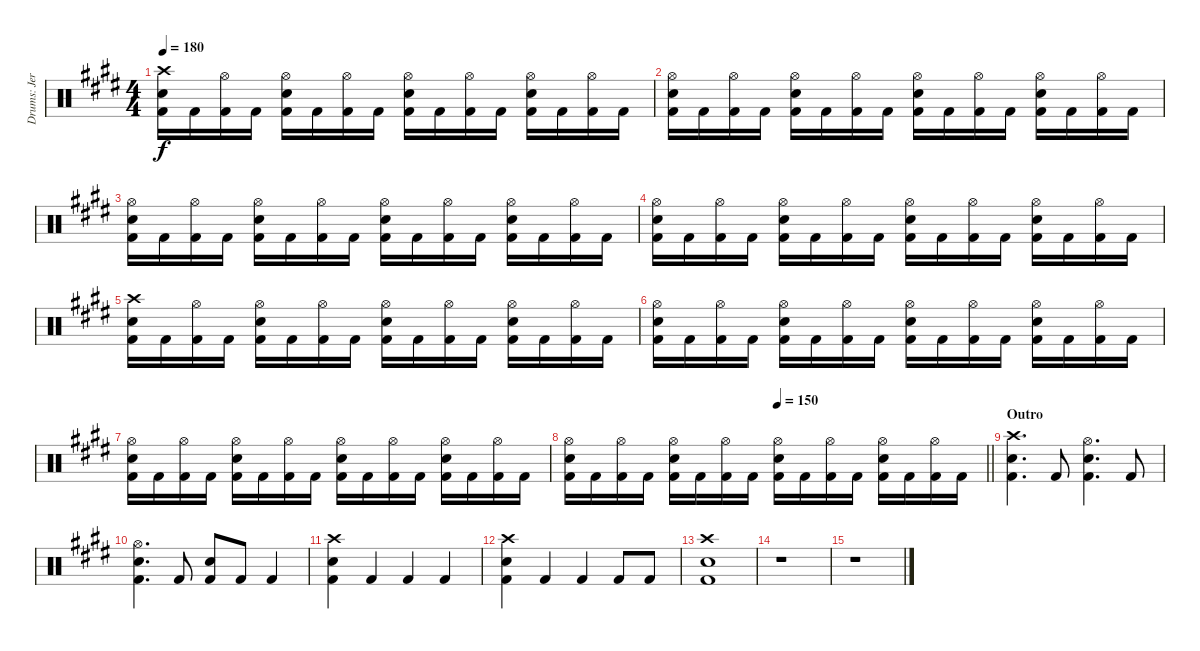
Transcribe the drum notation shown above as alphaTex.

\track ("Drums: Jere Luokkamäki" "Drums: Jer") {instrument percussion}
\staff {score}
\articulation defaults
\ts (4 4)
\tempo 180
\clef neutral
\ks c#minor
("Crash high (hit)" "Electric Snare (hit)" "Kick (hit) 2").16{dy f} "Kick (hit) 2".16 ("Hi-Hat (open)" "Kick (hit) 2").16 "Kick (hit) 2".16 ("Hi-Hat (open)" "Electric Snare (hit)" "Kick (hit) 2").16 "Kick (hit) 2".16 ("Hi-Hat (open)" "Kick (hit) 2").16 "Kick (hit) 2".16 ("Hi-Hat (open)" "Electric Snare (hit)" "Kick (hit) 2").16 "Kick (hit) 2".16 ("Hi-Hat (open)" "Kick (hit) 2").16 "Kick (hit) 2".16 ("Hi-Hat (open)" "Electric Snare (hit)" "Kick (hit) 2").16 "Kick (hit) 2".16 ("Hi-Hat (open)" "Kick (hit) 2").16 "Kick (hit) 2".16 |
("Hi-Hat (open)" "Electric Snare (hit)" "Kick (hit) 2").16 "Kick (hit) 2".16 ("Hi-Hat (open)" "Kick (hit) 2").16 "Kick (hit) 2".16 ("Hi-Hat (open)" "Electric Snare (hit)" "Kick (hit) 2").16 "Kick (hit) 2".16 ("Hi-Hat (open)" "Kick (hit) 2").16 "Kick (hit) 2".16 ("Hi-Hat (open)" "Electric Snare (hit)" "Kick (hit) 2").16 "Kick (hit) 2".16 ("Hi-Hat (open)" "Kick (hit) 2").16 "Kick (hit) 2".16 ("Hi-Hat (open)" "Electric Snare (hit)" "Kick (hit) 2").16 "Kick (hit) 2".16 ("Hi-Hat (open)" "Kick (hit) 2").16 "Kick (hit) 2".16 |
("Hi-Hat (open)" "Electric Snare (hit)" "Kick (hit) 2").16 "Kick (hit) 2".16 ("Hi-Hat (open)" "Kick (hit) 2").16 "Kick (hit) 2".16 ("Hi-Hat (open)" "Electric Snare (hit)" "Kick (hit) 2").16 "Kick (hit) 2".16 ("Hi-Hat (open)" "Kick (hit) 2").16 "Kick (hit) 2".16 ("Hi-Hat (open)" "Electric Snare (hit)" "Kick (hit) 2").16 "Kick (hit) 2".16 ("Hi-Hat (open)" "Kick (hit) 2").16 "Kick (hit) 2".16 ("Hi-Hat (open)" "Electric Snare (hit)" "Kick (hit) 2").16 "Kick (hit) 2".16 ("Hi-Hat (open)" "Kick (hit) 2").16 "Kick (hit) 2".16 |
("Hi-Hat (open)" "Electric Snare (hit)" "Kick (hit) 2").16 "Kick (hit) 2".16 ("Hi-Hat (open)" "Kick (hit) 2").16 "Kick (hit) 2".16 ("Hi-Hat (open)" "Electric Snare (hit)" "Kick (hit) 2").16 "Kick (hit) 2".16 ("Hi-Hat (open)" "Kick (hit) 2").16 "Kick (hit) 2".16 ("Hi-Hat (open)" "Electric Snare (hit)" "Kick (hit) 2").16 "Kick (hit) 2".16 ("Hi-Hat (open)" "Kick (hit) 2").16 "Kick (hit) 2".16 ("Hi-Hat (open)" "Electric Snare (hit)" "Kick (hit) 2").16 "Kick (hit) 2".16 ("Hi-Hat (open)" "Kick (hit) 2").16 "Kick (hit) 2".16 |
("Crash high (hit)" "Electric Snare (hit)" "Kick (hit) 2").16 "Kick (hit) 2".16 ("Hi-Hat (open)" "Kick (hit) 2").16 "Kick (hit) 2".16 ("Hi-Hat (open)" "Electric Snare (hit)" "Kick (hit) 2").16 "Kick (hit) 2".16 ("Hi-Hat (open)" "Kick (hit) 2").16 "Kick (hit) 2".16 ("Hi-Hat (open)" "Electric Snare (hit)" "Kick (hit) 2").16 "Kick (hit) 2".16 ("Hi-Hat (open)" "Kick (hit) 2").16 "Kick (hit) 2".16 ("Hi-Hat (open)" "Electric Snare (hit)" "Kick (hit) 2").16 "Kick (hit) 2".16 ("Hi-Hat (open)" "Kick (hit) 2").16 "Kick (hit) 2".16 |
("Hi-Hat (open)" "Electric Snare (hit)" "Kick (hit) 2").16 "Kick (hit) 2".16 ("Hi-Hat (open)" "Kick (hit) 2").16 "Kick (hit) 2".16 ("Hi-Hat (open)" "Electric Snare (hit)" "Kick (hit) 2").16 "Kick (hit) 2".16 ("Hi-Hat (open)" "Kick (hit) 2").16 "Kick (hit) 2".16 ("Hi-Hat (open)" "Electric Snare (hit)" "Kick (hit) 2").16 "Kick (hit) 2".16 ("Hi-Hat (open)" "Kick (hit) 2").16 "Kick (hit) 2".16 ("Hi-Hat (open)" "Electric Snare (hit)" "Kick (hit) 2").16 "Kick (hit) 2".16 ("Hi-Hat (open)" "Kick (hit) 2").16 "Kick (hit) 2".16 |
("Hi-Hat (open)" "Electric Snare (hit)" "Kick (hit) 2").16 "Kick (hit) 2".16 ("Hi-Hat (open)" "Kick (hit) 2").16 "Kick (hit) 2".16 ("Hi-Hat (open)" "Electric Snare (hit)" "Kick (hit) 2").16 "Kick (hit) 2".16 ("Hi-Hat (open)" "Kick (hit) 2").16 "Kick (hit) 2".16 ("Hi-Hat (open)" "Electric Snare (hit)" "Kick (hit) 2").16 "Kick (hit) 2".16 ("Hi-Hat (open)" "Kick (hit) 2").16 "Kick (hit) 2".16 ("Hi-Hat (open)" "Electric Snare (hit)" "Kick (hit) 2").16 "Kick (hit) 2".16 ("Hi-Hat (open)" "Kick (hit) 2").16 "Kick (hit) 2".16 |
\tempo (150 0.5)
\barLineRight lightlight
("Hi-Hat (open)" "Electric Snare (hit)" "Kick (hit) 2").16 "Kick (hit) 2".16 ("Hi-Hat (open)" "Kick (hit) 2").16 "Kick (hit) 2".16 ("Hi-Hat (open)" "Electric Snare (hit)" "Kick (hit) 2").16 "Kick (hit) 2".16 ("Hi-Hat (open)" "Kick (hit) 2").16 "Kick (hit) 2".16 ("Hi-Hat (open)" "Electric Snare (hit)" "Kick (hit) 2").16 "Kick (hit) 2".16 ("Hi-Hat (open)" "Kick (hit) 2").16 "Kick (hit) 2".16 ("Hi-Hat (open)" "Electric Snare (hit)" "Kick (hit) 2").16 "Kick (hit) 2".16 ("Hi-Hat (open)" "Kick (hit) 2").16 "Kick (hit) 2".16 |
\section ("" "Outro")
("Crash high (hit)" "Electric Snare (hit)" "Kick (hit) 2").4{d} "Kick (hit) 2".8 ("Hi-Hat (open)" "Electric Snare (hit)" "Kick (hit) 2").4{d} "Kick (hit) 2".8 |
("Hi-Hat (open)" "Electric Snare (hit)" "Kick (hit) 2").4{d} "Kick (hit) 2".8 ("Electric Snare (hit)" "Kick (hit) 2").8 "Kick (hit) 2".8 "Kick (hit) 2".4 |
("Crash high (hit)" "Electric Snare (hit)" "Kick (hit) 2").4 "Kick (hit) 2".4 "Kick (hit) 2".4 "Kick (hit) 2".4 |
("Crash high (hit)" "Electric Snare (hit)" "Kick (hit) 2").4 "Kick (hit) 2".4 "Kick (hit) 2".4 "Kick (hit) 2".8 "Kick (hit) 2".8 |
("Crash high (hit)" "Electric Snare (hit)" "Kick (hit) 2").1 |
r.1 |
r.1
